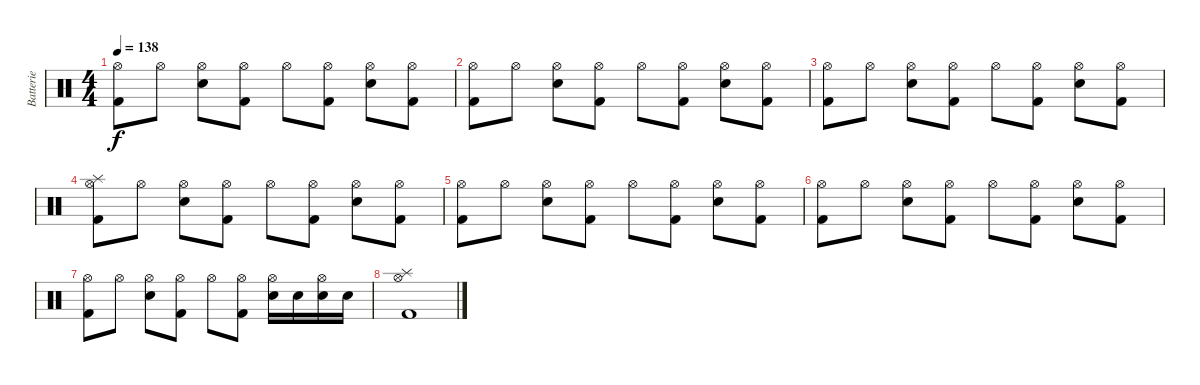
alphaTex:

\track ("Batterie" "Batterie") {instrument percussion}
\staff {score}
\articulation defaults
\ts (4 4)
\tempo 138
\clef neutral
\ks c
("Hi-Hat (open)" "Kick (hit) 2").8{dy f} "Hi-Hat (open)".8 ("Hi-Hat (open)" "Snare (hit) 2").8 ("Hi-Hat (open)" "Kick (hit) 2").8 "Hi-Hat (open)".8 ("Hi-Hat (open)" "Kick (hit) 2").8 ("Hi-Hat (open)" "Snare (hit) 2").8 ("Hi-Hat (open)" "Kick (hit) 2").8 |
("Hi-Hat (open)" "Kick (hit) 2").8 "Hi-Hat (open)".8 ("Hi-Hat (open)" "Snare (hit) 2").8 ("Hi-Hat (open)" "Kick (hit) 2").8 "Hi-Hat (open)".8 ("Hi-Hat (open)" "Kick (hit) 2").8 ("Hi-Hat (open)" "Snare (hit) 2").8 ("Hi-Hat (open)" "Kick (hit) 2").8 |
("Hi-Hat (open)" "Kick (hit) 2").8 "Hi-Hat (open)".8 ("Hi-Hat (open)" "Snare (hit) 2").8 ("Hi-Hat (open)" "Kick (hit) 2").8 "Hi-Hat (open)".8 ("Hi-Hat (open)" "Kick (hit) 2").8 ("Hi-Hat (open)" "Snare (hit) 2").8 ("Hi-Hat (open)" "Kick (hit) 2").8 |
("Splash (hit)" "Hi-Hat (open)" "Kick (hit) 2").8 "Hi-Hat (open)".8 ("Hi-Hat (open)" "Snare (hit) 2").8 ("Hi-Hat (open)" "Kick (hit) 2").8 "Hi-Hat (open)".8 ("Hi-Hat (open)" "Kick (hit) 2").8 ("Hi-Hat (open)" "Snare (hit) 2").8 ("Hi-Hat (open)" "Kick (hit) 2").8 |
("Hi-Hat (open)" "Kick (hit) 2").8 "Hi-Hat (open)".8 ("Hi-Hat (open)" "Snare (hit) 2").8 ("Hi-Hat (open)" "Kick (hit) 2").8 "Hi-Hat (open)".8 ("Hi-Hat (open)" "Kick (hit) 2").8 ("Hi-Hat (open)" "Snare (hit) 2").8 ("Hi-Hat (open)" "Kick (hit) 2").8 |
("Hi-Hat (open)" "Kick (hit) 2").8 "Hi-Hat (open)".8 ("Hi-Hat (open)" "Snare (hit) 2").8 ("Hi-Hat (open)" "Kick (hit) 2").8 "Hi-Hat (open)".8 ("Hi-Hat (open)" "Kick (hit) 2").8 ("Hi-Hat (open)" "Snare (hit) 2").8 ("Hi-Hat (open)" "Kick (hit) 2").8 |
("Hi-Hat (open)" "Kick (hit) 2").8 "Hi-Hat (open)".8 ("Hi-Hat (open)" "Snare (hit) 2").8 ("Hi-Hat (open)" "Kick (hit) 2").8 "Hi-Hat (open)".8 ("Hi-Hat (open)" "Kick (hit) 2").8 ("Hi-Hat (open)" "Snare (hit) 2").16 "Snare (hit) 2".16 ("Hi-Hat (open)" "Snare (hit) 2").16 "Snare (hit) 2".16 |
("Splash (hit)" "Hi-Hat (open)" "Kick (hit) 2").1
